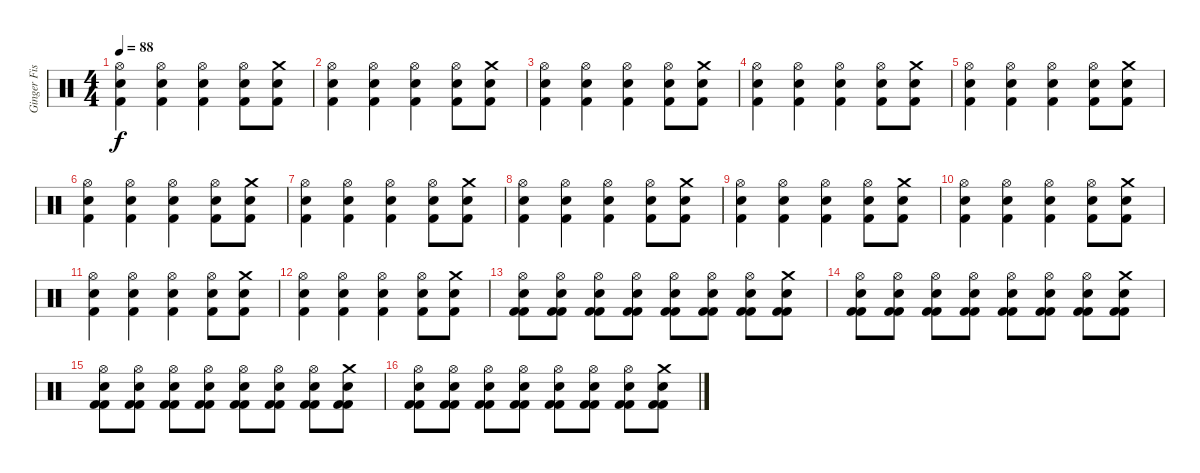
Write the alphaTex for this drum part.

\track ("Ginger Fish (Drums)" "Ginger Fis") {instrument percussion}
\staff {score}
\articulation defaults
\ts (4 4)
\tempo 88
\clef neutral
\ks c
("Hi-Hat (open)" "Snare (hit) 2" "Kick (hit) 2").4{dy f} ("Hi-Hat (open)" "Snare (hit) 2" "Kick (hit) 2").4 ("Hi-Hat (open)" "Snare (hit) 2" "Kick (hit) 2").4 ("Hi-Hat (open)" "Snare (hit) 2" "Kick (hit) 2").8 ("Crash medium (hit)" "Electric Snare (hit)" "Kick (hit) 2").8 |
("Hi-Hat (open)" "Snare (hit) 2" "Kick (hit) 2").4 ("Hi-Hat (open)" "Snare (hit) 2" "Kick (hit) 2").4 ("Hi-Hat (open)" "Snare (hit) 2" "Kick (hit) 2").4 ("Hi-Hat (open)" "Snare (hit) 2" "Kick (hit) 2").8 ("Crash medium (hit)" "Electric Snare (hit)" "Kick (hit) 2").8 |
("Hi-Hat (open)" "Snare (hit) 2" "Kick (hit) 2").4 ("Hi-Hat (open)" "Snare (hit) 2" "Kick (hit) 2").4 ("Hi-Hat (open)" "Snare (hit) 2" "Kick (hit) 2").4 ("Hi-Hat (open)" "Snare (hit) 2" "Kick (hit) 2").8 ("Crash medium (hit)" "Electric Snare (hit)" "Kick (hit) 2").8 |
("Hi-Hat (open)" "Snare (hit) 2" "Kick (hit) 2").4 ("Hi-Hat (open)" "Snare (hit) 2" "Kick (hit) 2").4 ("Hi-Hat (open)" "Snare (hit) 2" "Kick (hit) 2").4 ("Hi-Hat (open)" "Snare (hit) 2" "Kick (hit) 2").8 ("Crash medium (hit)" "Electric Snare (hit)" "Kick (hit) 2").8 |
("Hi-Hat (open)" "Snare (hit) 2" "Kick (hit) 2").4 ("Hi-Hat (open)" "Snare (hit) 2" "Kick (hit) 2").4 ("Hi-Hat (open)" "Snare (hit) 2" "Kick (hit) 2").4 ("Hi-Hat (open)" "Snare (hit) 2" "Kick (hit) 2").8 ("Crash medium (hit)" "Electric Snare (hit)" "Kick (hit) 2").8 |
("Hi-Hat (open)" "Snare (hit) 2" "Kick (hit) 2").4 ("Hi-Hat (open)" "Snare (hit) 2" "Kick (hit) 2").4 ("Hi-Hat (open)" "Snare (hit) 2" "Kick (hit) 2").4 ("Hi-Hat (open)" "Snare (hit) 2" "Kick (hit) 2").8 ("Crash medium (hit)" "Electric Snare (hit)" "Kick (hit) 2").8 |
("Hi-Hat (open)" "Snare (hit) 2" "Kick (hit) 2").4 ("Hi-Hat (open)" "Snare (hit) 2" "Kick (hit) 2").4 ("Hi-Hat (open)" "Snare (hit) 2" "Kick (hit) 2").4 ("Hi-Hat (open)" "Snare (hit) 2" "Kick (hit) 2").8 ("Crash medium (hit)" "Electric Snare (hit)" "Kick (hit) 2").8 |
("Hi-Hat (open)" "Snare (hit) 2" "Kick (hit) 2").4 ("Hi-Hat (open)" "Snare (hit) 2" "Kick (hit) 2").4 ("Hi-Hat (open)" "Snare (hit) 2" "Kick (hit) 2").4 ("Hi-Hat (open)" "Snare (hit) 2" "Kick (hit) 2").8 ("Crash medium (hit)" "Electric Snare (hit)" "Kick (hit) 2").8 |
("Hi-Hat (open)" "Snare (hit) 2" "Kick (hit) 2").4 ("Hi-Hat (open)" "Snare (hit) 2" "Kick (hit) 2").4 ("Hi-Hat (open)" "Snare (hit) 2" "Kick (hit) 2").4 ("Hi-Hat (open)" "Snare (hit) 2" "Kick (hit) 2").8 ("Crash medium (hit)" "Electric Snare (hit)" "Kick (hit) 2").8 |
("Hi-Hat (open)" "Snare (hit) 2" "Kick (hit) 2").4 ("Hi-Hat (open)" "Snare (hit) 2" "Kick (hit) 2").4 ("Hi-Hat (open)" "Snare (hit) 2" "Kick (hit) 2").4 ("Hi-Hat (open)" "Snare (hit) 2" "Kick (hit) 2").8 ("Crash medium (hit)" "Electric Snare (hit)" "Kick (hit) 2").8 |
("Hi-Hat (open)" "Snare (hit) 2" "Kick (hit) 2").4 ("Hi-Hat (open)" "Snare (hit) 2" "Kick (hit) 2").4 ("Hi-Hat (open)" "Snare (hit) 2" "Kick (hit) 2").4 ("Hi-Hat (open)" "Snare (hit) 2" "Kick (hit) 2").8 ("Crash medium (hit)" "Electric Snare (hit)" "Kick (hit) 2").8 |
("Hi-Hat (open)" "Snare (hit) 2" "Kick (hit) 2").4 ("Hi-Hat (open)" "Snare (hit) 2" "Kick (hit) 2").4 ("Hi-Hat (open)" "Snare (hit) 2" "Kick (hit) 2").4 ("Hi-Hat (open)" "Snare (hit) 2" "Kick (hit) 2").8 ("Crash medium (hit)" "Electric Snare (hit)" "Kick (hit) 2").8 |
("Hi-Hat (open)" "Snare (hit) 2" "Kick (hit) 2" "Kick (hit) 2").8 ("Hi-Hat (open)" "Electric Snare (hit)" "Kick (hit) 2" "Kick (hit) 2").8 ("Hi-Hat (open)" "Snare (hit) 2" "Kick (hit) 2" "Kick (hit) 2").8 ("Hi-Hat (open)" "Electric Snare (hit)" "Kick (hit) 2" "Kick (hit) 2").8 ("Hi-Hat (open)" "Snare (hit) 2" "Kick (hit) 2" "Kick (hit) 2").8 ("Hi-Hat (open)" "Electric Snare (hit)" "Kick (hit) 2" "Kick (hit) 2").8 ("Hi-Hat (open)" "Snare (hit) 2" "Kick (hit) 2" "Kick (hit) 2").8 ("Crash medium (hit)" "Electric Snare (hit)" "Kick (hit) 2" "Kick (hit) 2").8 |
("Hi-Hat (open)" "Snare (hit) 2" "Kick (hit) 2" "Kick (hit) 2").8 ("Hi-Hat (open)" "Electric Snare (hit)" "Kick (hit) 2" "Kick (hit) 2").8 ("Hi-Hat (open)" "Snare (hit) 2" "Kick (hit) 2" "Kick (hit) 2").8 ("Hi-Hat (open)" "Electric Snare (hit)" "Kick (hit) 2" "Kick (hit) 2").8 ("Hi-Hat (open)" "Snare (hit) 2" "Kick (hit) 2" "Kick (hit) 2").8 ("Hi-Hat (open)" "Electric Snare (hit)" "Kick (hit) 2" "Kick (hit) 2").8 ("Hi-Hat (open)" "Snare (hit) 2" "Kick (hit) 2" "Kick (hit) 2").8 ("Crash medium (hit)" "Electric Snare (hit)" "Kick (hit) 2" "Kick (hit) 2").8 |
("Hi-Hat (open)" "Snare (hit) 2" "Kick (hit) 2" "Kick (hit) 2").8 ("Hi-Hat (open)" "Electric Snare (hit)" "Kick (hit) 2" "Kick (hit) 2").8 ("Hi-Hat (open)" "Snare (hit) 2" "Kick (hit) 2" "Kick (hit) 2").8 ("Hi-Hat (open)" "Electric Snare (hit)" "Kick (hit) 2" "Kick (hit) 2").8 ("Hi-Hat (open)" "Snare (hit) 2" "Kick (hit) 2" "Kick (hit) 2").8 ("Hi-Hat (open)" "Electric Snare (hit)" "Kick (hit) 2" "Kick (hit) 2").8 ("Hi-Hat (open)" "Snare (hit) 2" "Kick (hit) 2" "Kick (hit) 2").8 ("Crash medium (hit)" "Electric Snare (hit)" "Kick (hit) 2" "Kick (hit) 2").8 |
("Hi-Hat (open)" "Snare (hit) 2" "Kick (hit) 2" "Kick (hit) 2").8 ("Hi-Hat (open)" "Electric Snare (hit)" "Kick (hit) 2" "Kick (hit) 2").8 ("Hi-Hat (open)" "Snare (hit) 2" "Kick (hit) 2" "Kick (hit) 2").8 ("Hi-Hat (open)" "Electric Snare (hit)" "Kick (hit) 2" "Kick (hit) 2").8 ("Hi-Hat (open)" "Snare (hit) 2" "Kick (hit) 2" "Kick (hit) 2").8 ("Hi-Hat (open)" "Electric Snare (hit)" "Kick (hit) 2" "Kick (hit) 2").8 ("Hi-Hat (open)" "Snare (hit) 2" "Kick (hit) 2" "Kick (hit) 2").8 ("Crash medium (hit)" "Electric Snare (hit)" "Kick (hit) 2" "Kick (hit) 2").8
